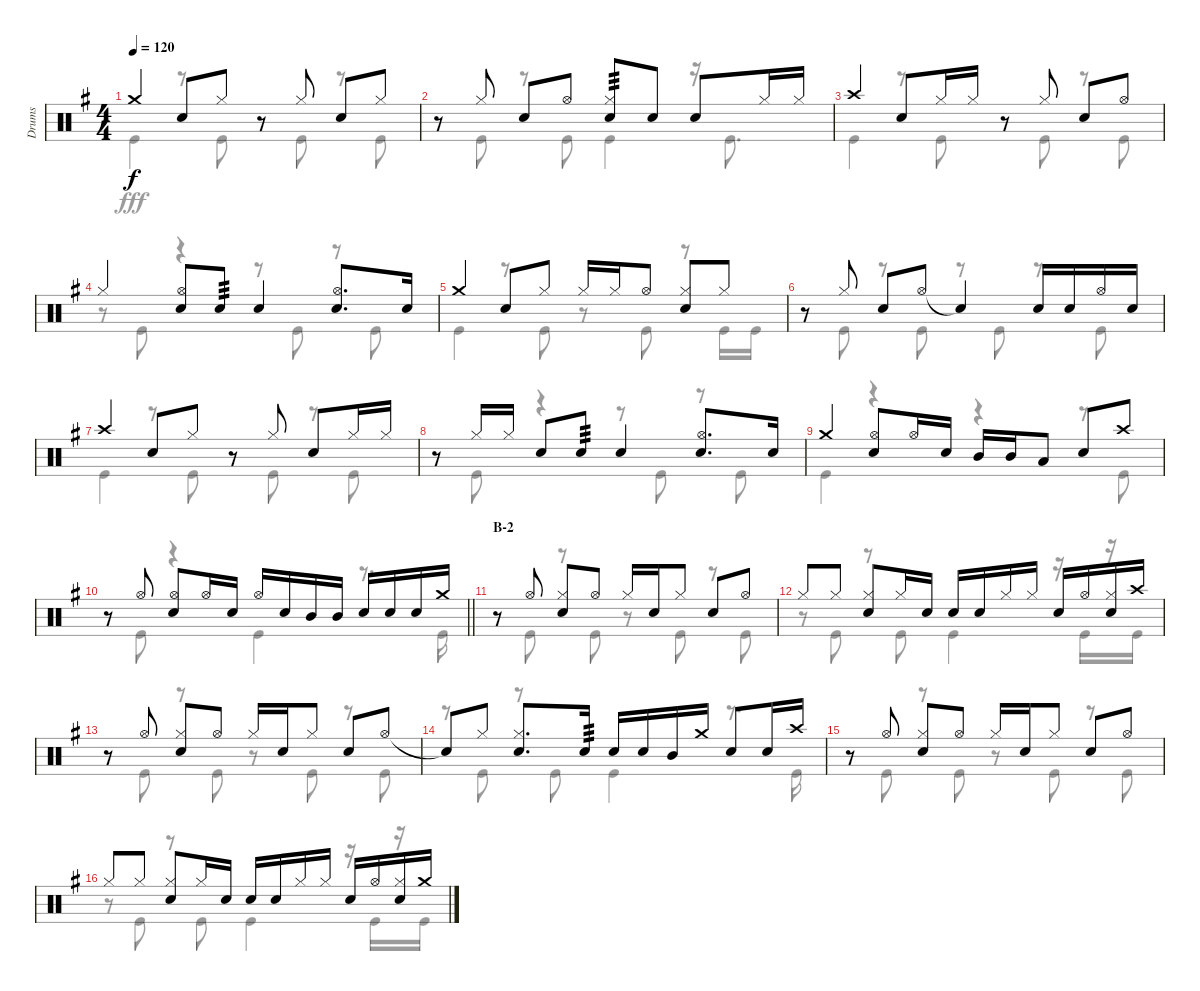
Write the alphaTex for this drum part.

\track ("Drums" "Drums") {instrument percussion}
\staff {score}
\articulation defaults
\voice
\ts (4 4)
\tempo 120
\clef neutral
\ks g "Crash medium (hit)".4{dy f} "Snare (hit) 2".8 "Hi-Hat (closed)".8
r.8 "Hi-Hat (closed)".8 "Snare (hit) 2".8 "Hi-Hat (closed)".8 |
r.8 "Hi-Hat (closed)".8 "Snare (hit) 2".8 "Hi-Hat (open)".8 ("Hi-Hat (closed)" "Snare (hit) 2").8{tp 3} "Snare (hit) 2".8 "Snare (hit) 2".8 "Hi-Hat (closed)".16 "Hi-Hat (closed)".16 |
"Crash high (hit)".4 "Snare (hit) 2".8 "Hi-Hat (closed)".16 "Hi-Hat (closed)".16 r.8 "Hi-Hat (closed)".8 "Snare (hit) 2".8 "Hi-Hat (open)".8 |
"Hi-Hat (closed)".4 ("Hi-Hat (open)" "Snare (hit) 2").8 "Snare (hit) 2".8{tp 3} "Snare (hit) 2".4 ("Hi-Hat (open)" "Snare (hit) 2").8{d} "Snare (hit) 2".16 |
"Crash medium (hit)".4 "Snare (hit) 2".8 "Hi-Hat (closed)".8 "Hi-Hat (closed)".16 "Hi-Hat (closed)".16 "Hi-Hat (open)".8 ("Hi-Hat (closed)" "Snare (hit) 2").8 "Hi-Hat (closed)".8 |
r.8 "Hi-Hat (closed)".8 "Snare (hit) 2".8 "Hi-Hat (open)".8 "Snare (hit)"{t}.4 "Snare (hit) 2".16 "Snare (hit) 2".16 "Hi-Hat (open)".16 "Snare (hit) 2".16 |
"Crash high (hit)".4 "Snare (hit) 2".8 "Hi-Hat (closed)".8 r.8 "Hi-Hat (closed)".8 "Snare (hit) 2".8 "Hi-Hat (closed)".16 "Hi-Hat (closed)".16 |
r.8 "Hi-Hat (closed)".16 "Hi-Hat (closed)".16 "Snare (hit) 2".8 "Snare (hit) 2".8{tp 3} "Snare (hit) 2".4 ("Hi-Hat (open)" "Snare (hit) 2").8{d} "Snare (hit) 2".16 |
"Crash medium (hit)".4 ("Hi-Hat (open)" "Snare (hit) 2").8 "Hi-Hat (open)".16 "Snare (hit) 2".16 "Mid Tom (hit)".16 "Mid Tom (hit)".16 "Low Tom (hit)".8 "Snare (hit) 2".8 "Crash high (hit)".8 |
\barLineRight lightlight
r.8 "Hi-Hat (open)".8 ("Hi-Hat (open)" "Snare (hit) 2").8 "Hi-Hat (open)".16 "Snare (hit) 2".16 "Hi-Hat (open)".16 "Snare (hit) 2".16 "Mid Tom (hit)".16 "Mid Tom (hit)".16 "Snare (hit) 2".16 "Snare (hit) 2".16 "Snare (hit) 2".16 "Crash medium (hit)".16 |
\section ("" "B-2")
r.8 "Hi-Hat (open)".8 ("Hi-Hat (closed)" "Snare (hit) 2").8 "Hi-Hat (open)".8 "Hi-Hat (closed)".16 "Snare (hit) 2".16 "Hi-Hat (closed)".8 "Snare (hit) 2".8 "Hi-Hat (open)".8 |
"Hi-Hat (closed)".8 "Hi-Hat (closed)".8 ("Hi-Hat (closed)" "Snare (hit) 2").8 "Hi-Hat (closed)".16 "Snare (hit) 2".16 "Snare (hit) 2".16 "Snare (hit) 2".16 "Hi-Hat (closed)".16 "Hi-Hat (closed)".16 "Snare (hit) 2".16 "Hi-Hat (open)".16 ("Hi-Hat (closed)" "Snare (hit) 2").16 "Crash high (hit)".16 |
r.8 "Hi-Hat (open)".8 ("Hi-Hat (closed)" "Snare (hit) 2").8 "Hi-Hat (open)".8 "Hi-Hat (closed)".16 "Snare (hit) 2".16 "Hi-Hat (closed)".8 "Snare (hit) 2".8 "Hi-Hat (open)".8 |
"Snare (hit)"{t}.8 "Hi-Hat (closed)".8 ("Hi-Hat (closed)" "Snare (hit) 2").8{d} "Snare (hit) 2".16{tp 3} "Snare (hit) 2".16 "Snare (hit) 2".16 "Mid Tom (hit)".16 "Crash medium (hit)".16 "Snare (hit) 2".8 "Snare (hit) 2".16 "Crash high (hit)".16 |
r.8 "Hi-Hat (open)".8 ("Hi-Hat (closed)" "Snare (hit) 2").8 "Hi-Hat (open)".8 "Hi-Hat (closed)".16 "Snare (hit) 2".16 "Hi-Hat (closed)".8 "Snare (hit) 2".8 "Hi-Hat (open)".8 |
"Hi-Hat (closed)".8 "Hi-Hat (closed)".8 ("Hi-Hat (closed)" "Snare (hit) 2").8 "Hi-Hat (closed)".16 "Snare (hit) 2".16 "Snare (hit) 2".16 "Snare (hit) 2".16 "Hi-Hat (closed)".16 "Hi-Hat (closed)".16 "Snare (hit) 2".16 "Hi-Hat (open)".16 ("Hi-Hat (closed)" "Snare (hit) 2").16 "Crash medium (hit)".16
\voice
\clef neutral
\ottava regular
\simile none
\ks g "Kick (hit)".4{dy fff}
r.8 "Kick (hit)".8 r.8 "Kick (hit)".8 r.8 "Kick (hit)".8 |
r.8 "Kick (hit)".8 r.8 "Kick (hit)".8 "Kick (hit)".4 r.16 "Kick (hit)".8{d} |
"Kick (hit)".4 r.8 "Kick (hit)".8 r.8 "Kick (hit)".8 r.8 "Kick (hit)".8 |
r.8 "Kick (hit)".8 r.4 r.8 "Kick (hit)".8 r.8 "Kick (hit)".8 |
"Kick (hit)".4 r.8 "Kick (hit)".8 r.8 "Kick (hit)".8 r.8 "Kick (hit)".16 "Kick (hit)".16 |
r.8 "Kick (hit)".8 r.8 "Kick (hit)".8 r.8 "Kick (hit)".8 r.8 "Kick (hit)".8 |
"Kick (hit)".4 r.8 "Kick (hit)".8 r.8 "Kick (hit)".8 r.8 "Kick (hit)".8 |
r.8 "Kick (hit)".8 r.4 r.8 "Kick (hit)".8 r.8 "Kick (hit)".8 |
"Kick (hit)".4 r.4 r.4 r.8 "Kick (hit)".8 |
\barLineRight lightlight
r.8 "Kick (hit)".8 r.4 "Kick (hit)".4 r.8{d} "Kick (hit)".16 |
r.8 "Kick (hit)".8 r.8 "Kick (hit)".8 r.8 "Kick (hit)".8 r.8 "Kick (hit)".8 |
r.8 "Kick (hit)".8 r.8 "Kick (hit)".8 "Kick (hit)".4 r.16 "Kick (hit)".16 r.16 "Kick (hit)".16 |
r.8 "Kick (hit)".8 r.8 "Kick (hit)".8 r.8 "Kick (hit)".8 r.8 "Kick (hit)".8 |
r.8 "Kick (hit)".8 r.8 "Kick (hit)".8 "Kick (hit)".4 r.8{d} "Kick (hit)".16 |
r.8 "Kick (hit)".8 r.8 "Kick (hit)".8 r.8 "Kick (hit)".8 r.8 "Kick (hit)".8 |
r.8 "Kick (hit)".8 r.8 "Kick (hit)".8 "Kick (hit)".4 r.16 "Kick (hit)".16 r.16 "Kick (hit)".16
